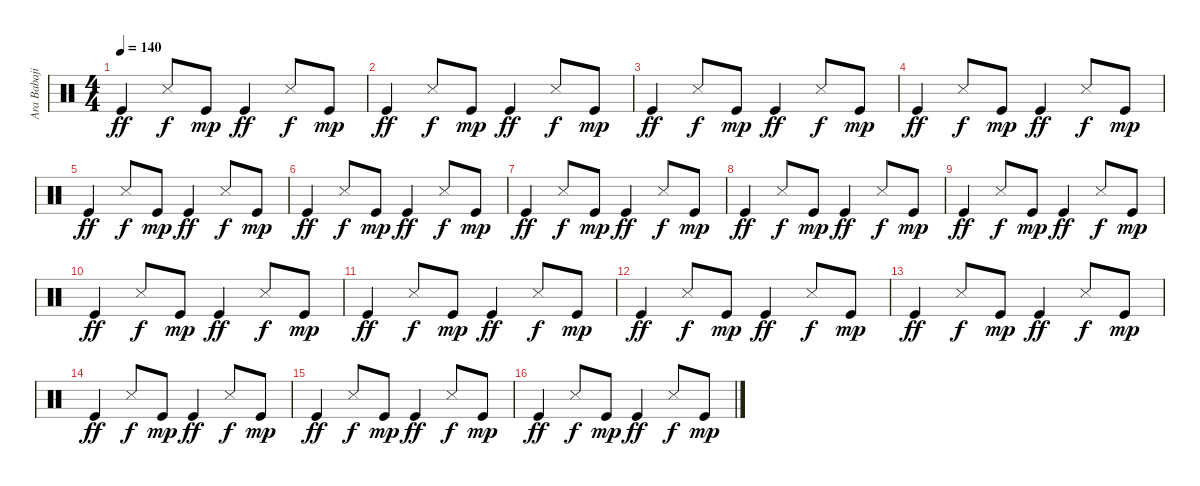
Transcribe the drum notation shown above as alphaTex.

\track ("Ara Babajian Drums" "Ara Babaji") {instrument percussion}
\staff {score}
\articulation defaults
\ts (4 4)
\tempo 140
\clef neutral
\ks c "Kick (hit)".4{dy ff} "Snare (side stick) 3".8{dy f} "Kick (hit)".8{dy mp} "Kick (hit)".4{dy ff} "Snare (side stick) 3".8{dy f} "Kick (hit)".8{dy mp}
|
"Kick (hit)".4{dy ff} "Snare (side stick) 3".8{dy f} "Kick (hit)".8{dy mp} "Kick (hit)".4{dy ff} "Snare (side stick) 3".8{dy f} "Kick (hit)".8{dy mp} |
"Kick (hit)".4{dy ff} "Snare (side stick) 3".8{dy f} "Kick (hit)".8{dy mp} "Kick (hit)".4{dy ff} "Snare (side stick) 3".8{dy f} "Kick (hit)".8{dy mp} |
"Kick (hit)".4{dy ff} "Snare (side stick) 3".8{dy f} "Kick (hit)".8{dy mp} "Kick (hit)".4{dy ff} "Snare (side stick) 3".8{dy f} "Kick (hit)".8{dy mp} |
"Kick (hit)".4{dy ff} "Snare (side stick) 3".8{dy f} "Kick (hit)".8{dy mp} "Kick (hit)".4{dy ff} "Snare (side stick) 3".8{dy f} "Kick (hit)".8{dy mp} |
"Kick (hit)".4{dy ff} "Snare (side stick) 3".8{dy f} "Kick (hit)".8{dy mp} "Kick (hit)".4{dy ff} "Snare (side stick) 3".8{dy f} "Kick (hit)".8{dy mp} |
"Kick (hit)".4{dy ff} "Snare (side stick) 3".8{dy f} "Kick (hit)".8{dy mp} "Kick (hit)".4{dy ff} "Snare (side stick) 3".8{dy f} "Kick (hit)".8{dy mp} |
"Kick (hit)".4{dy ff} "Snare (side stick) 3".8{dy f} "Kick (hit)".8{dy mp} "Kick (hit)".4{dy ff} "Snare (side stick) 3".8{dy f} "Kick (hit)".8{dy mp} |
"Kick (hit)".4{dy ff} "Snare (side stick) 3".8{dy f} "Kick (hit)".8{dy mp} "Kick (hit)".4{dy ff} "Snare (side stick) 3".8{dy f} "Kick (hit)".8{dy mp} |
"Kick (hit)".4{dy ff} "Snare (side stick) 3".8{dy f} "Kick (hit)".8{dy mp} "Kick (hit)".4{dy ff} "Snare (side stick) 3".8{dy f} "Kick (hit)".8{dy mp} |
"Kick (hit)".4{dy ff} "Snare (side stick) 3".8{dy f} "Kick (hit)".8{dy mp} "Kick (hit)".4{dy ff} "Snare (side stick) 3".8{dy f} "Kick (hit)".8{dy mp} |
"Kick (hit)".4{dy ff} "Snare (side stick) 3".8{dy f} "Kick (hit)".8{dy mp} "Kick (hit)".4{dy ff} "Snare (side stick) 3".8{dy f} "Kick (hit)".8{dy mp} |
"Kick (hit)".4{dy ff} "Snare (side stick) 3".8{dy f} "Kick (hit)".8{dy mp} "Kick (hit)".4{dy ff} "Snare (side stick) 3".8{dy f} "Kick (hit)".8{dy mp} |
"Kick (hit)".4{dy ff} "Snare (side stick) 3".8{dy f} "Kick (hit)".8{dy mp} "Kick (hit)".4{dy ff} "Snare (side stick) 3".8{dy f} "Kick (hit)".8{dy mp} |
"Kick (hit)".4{dy ff} "Snare (side stick) 3".8{dy f} "Kick (hit)".8{dy mp} "Kick (hit)".4{dy ff} "Snare (side stick) 3".8{dy f} "Kick (hit)".8{dy mp} |
"Kick (hit)".4{dy ff} "Snare (side stick) 3".8{dy f} "Kick (hit)".8{dy mp} "Kick (hit)".4{dy ff} "Snare (side stick) 3".8{dy f} "Kick (hit)".8{dy mp}
